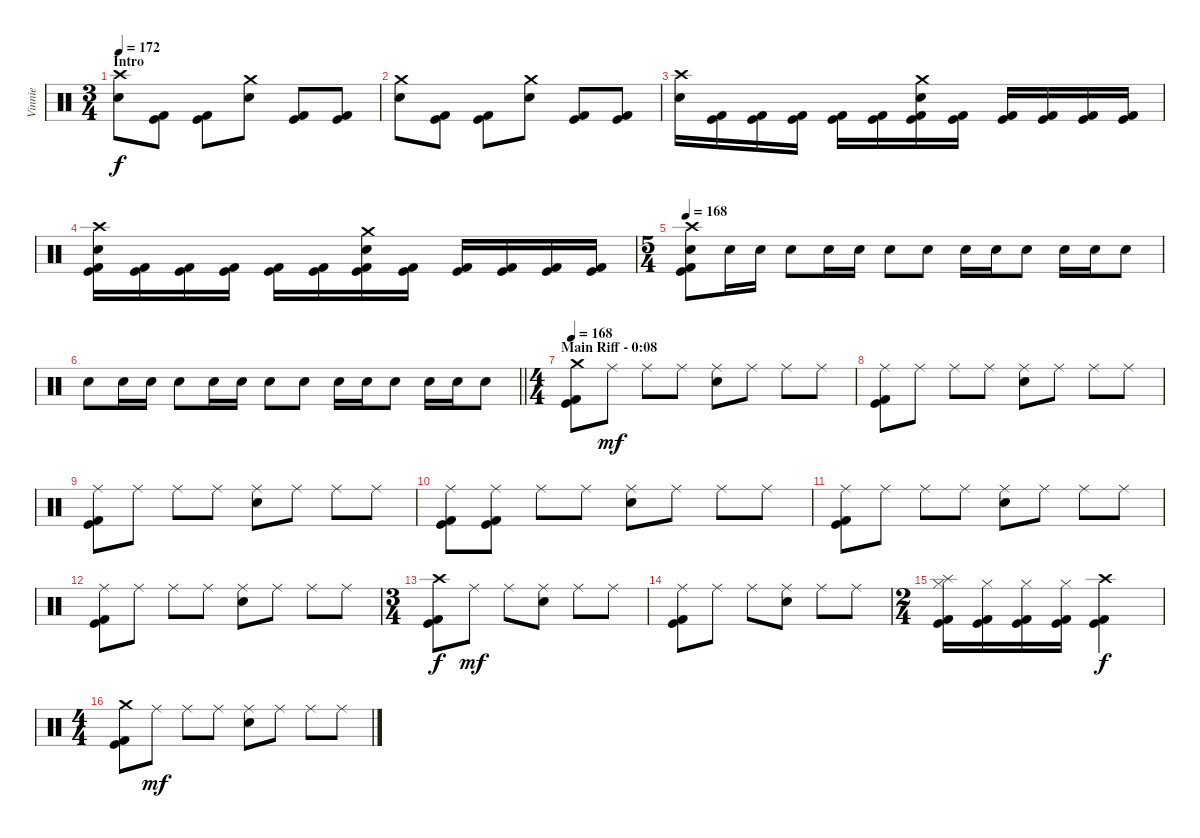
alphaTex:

\track ("Vinnie" "Vinnie") {instrument percussion}
\staff {score}
\articulation defaults
\ts (3 4)
\section ("" "Intro")
\tempo 172
\clef neutral
\ks c
("Crash high (hit)" "Electric Snare (hit)").8{dy f volume 16} ("Kick (hit)" "Kick (hit) 2").8 ("Kick (hit)" "Kick (hit) 2").8 ("Crash medium (hit)" "Electric Snare (hit)").8 ("Kick (hit)" "Kick (hit) 2").8 ("Kick (hit)" "Kick (hit) 2").8 |
("Crash medium (hit)" "Electric Snare (hit)").8 ("Kick (hit)" "Kick (hit) 2").8 ("Kick (hit)" "Kick (hit) 2").8 ("Crash medium (hit)" "Electric Snare (hit)").8 ("Kick (hit)" "Kick (hit) 2").8 ("Kick (hit)" "Kick (hit) 2").8 |
("Crash high (hit)" "Electric Snare (hit)").16 ("Kick (hit)" "Kick (hit) 2").16 ("Kick (hit)" "Kick (hit) 2").16 ("Kick (hit)" "Kick (hit) 2").16 ("Kick (hit)" "Kick (hit) 2").16 ("Kick (hit)" "Kick (hit) 2").16 ("Crash medium (hit)" "Electric Snare (hit)" "Kick (hit)" "Kick (hit) 2").16 ("Kick (hit)" "Kick (hit) 2").16 ("Kick (hit)" "Kick (hit) 2").16 ("Kick (hit)" "Kick (hit) 2").16 ("Kick (hit)" "Kick (hit) 2").16 ("Kick (hit)" "Kick (hit) 2").16 |
("Crash high (hit)" "Electric Snare (hit)" "Kick (hit)" "Kick (hit) 2").16 ("Kick (hit)" "Kick (hit) 2").16 ("Kick (hit)" "Kick (hit) 2").16 ("Kick (hit)" "Kick (hit) 2").16 ("Kick (hit)" "Kick (hit) 2").16 ("Kick (hit)" "Kick (hit) 2").16 ("Crash medium (hit)" "Electric Snare (hit)" "Kick (hit)" "Kick (hit) 2").16 ("Kick (hit)" "Kick (hit) 2").16 ("Kick (hit)" "Kick (hit) 2").16 ("Kick (hit)" "Kick (hit) 2").16 ("Kick (hit)" "Kick (hit) 2").16 ("Kick (hit)" "Kick (hit) 2").16 |
\ts (5 4)
\tempo 168
("Crash high (hit)" "Electric Snare (hit)" "Kick (hit)" "Kick (hit) 2").8{bd 60} "Electric Snare (hit)".16 "Electric Snare (hit)".16 "Electric Snare (hit)".8 "Electric Snare (hit)".16 "Electric Snare (hit)".16 "Electric Snare (hit)".8 "Electric Snare (hit)".8 "Electric Snare (hit)".16 "Electric Snare (hit)".16 "Electric Snare (hit)".8 "Electric Snare (hit)".16 "Electric Snare (hit)".16 "Electric Snare (hit)".8 |
\barLineRight lightlight "Electric Snare (hit)".8 "Electric Snare (hit)".16 "Electric Snare (hit)".16 "Electric Snare (hit)".8 "Electric Snare (hit)".16 "Electric Snare (hit)".16 "Electric Snare (hit)".8 "Electric Snare (hit)".8 "Electric Snare (hit)".16 "Electric Snare (hit)".16 "Electric Snare (hit)".8 "Electric Snare (hit)".16 "Electric Snare (hit)".16 "Electric Snare (hit)".8
|
\ts (4 4)
\section ("" "Main Riff - 0:08")
\tempo 168
("Crash medium (hit)" "Kick (hit)" "Kick (hit) 2").8 "Ride (middle)".8{dy mf} "Ride (middle)".8 "Ride (middle)".8 ("Ride (middle)" "Electric Snare (hit)").8 "Ride (middle)".8 "Ride (middle)".8 "Ride (middle)".8 |
("Ride (middle)" "Kick (hit)" "Kick (hit) 2").8 "Ride (middle)".8 "Ride (middle)".8 "Ride (middle)".8 ("Ride (middle)" "Electric Snare (hit)").8 "Ride (middle)".8 "Ride (middle)".8 "Ride (middle)".8 |
("Ride (middle)" "Kick (hit)" "Kick (hit) 2").8 "Ride (middle)".8 "Ride (middle)".8 "Ride (middle)".8 ("Ride (middle)" "Electric Snare (hit)").8 "Ride (middle)".8 "Ride (middle)".8 "Ride (middle)".8 |
("Ride (middle)" "Kick (hit)" "Kick (hit) 2").8 ("Ride (middle)" "Kick (hit)" "Kick (hit) 2").8 "Ride (middle)".8 "Ride (middle)".8 ("Ride (middle)" "Electric Snare (hit)").8 "Ride (middle)".8 "Ride (middle)".8 "Ride (middle)".8 |
("Ride (middle)" "Kick (hit)" "Kick (hit) 2").8 "Ride (middle)".8 "Ride (middle)".8 "Ride (middle)".8 ("Ride (middle)" "Electric Snare (hit)").8 "Ride (middle)".8 "Ride (middle)".8 "Ride (middle)".8 |
("Ride (middle)" "Kick (hit)" "Kick (hit) 2").8 "Ride (middle)".8 "Ride (middle)".8 "Ride (middle)".8 ("Ride (middle)" "Electric Snare (hit)").8 "Ride (middle)".8 "Ride (middle)".8 "Ride (middle)".8 |
\ts (3 4)
("Crash high (hit)" "Kick (hit)" "Kick (hit) 2").8{dy f} "Ride (middle)".8{dy mf} "Ride (middle)".8 ("Ride (middle)" "Electric Snare (hit)").8 "Ride (middle)".8 "Ride (middle)".8 |
("Ride (middle)" "Kick (hit)" "Kick (hit) 2").8 "Ride (middle)".8 "Ride (middle)".8 ("Ride (middle)" "Electric Snare (hit)").8 "Ride (middle)".8 "Ride (middle)".8 |
\ts (2 4)
("Hi-Hat (closed)" "Splash (hit)" "Kick (hit)" "Kick (hit) 2").16 ("Hi-Hat (closed)" "Kick (hit)" "Kick (hit) 2").16 ("Hi-Hat (closed)" "Kick (hit)" "Kick (hit) 2").16 ("Hi-Hat (closed)" "Kick (hit)" "Kick (hit) 2").16 ("Crash high (hit)" "Kick (hit)" "Kick (hit) 2").4{dy f} |
\ts (4 4)
("Crash medium (hit)" "Kick (hit)" "Kick (hit) 2").8 "Ride (middle)".8{dy mf} "Ride (middle)".8 "Ride (middle)".8 ("Ride (middle)" "Electric Snare (hit)").8 "Ride (middle)".8 "Ride (middle)".8 "Ride (middle)".8
